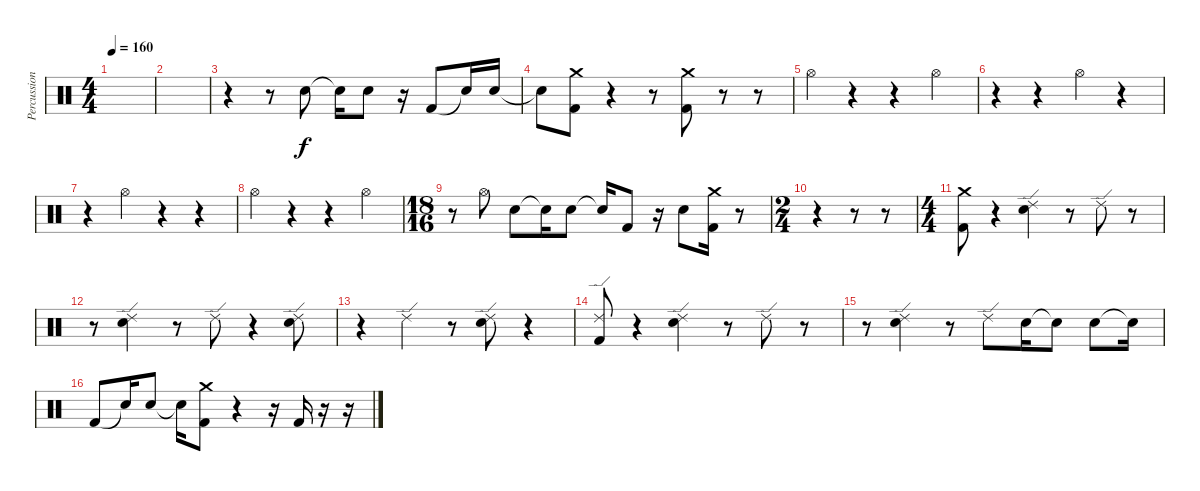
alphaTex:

\track ("Percussion" "Percussion") {instrument percussion}
\staff {score}
\articulation defaults
\ts (4 4)
\tempo 160
\clef neutral
\ks c
|
|
r.4 r.8 "Electric Snare (hit)".8 "Snare (hit)"{t}.16 "Electric Snare (hit)".8 r.16 "Kick (hit) 2".8 "Snare (hit)"{t}.16 "Electric Snare (hit)".16 |
"Electric Snare (hit)"{t}.8 ("Crash medium (hit)" "Kick (hit) 2").8 r.4 r.8 ("Crash medium (hit)" "Kick (hit) 2").8 r.8 r.8 |
"Hi-Hat (open)".4 r.4 r.4 "Hi-Hat (open)".4 |
r.4 r.4 "Hi-Hat (open)".4 r.4 |
r.4 "Hi-Hat (open)".4 r.4 r.4 |
"Hi-Hat (open)".4 r.4 r.4 "Hi-Hat (open)".4 |
\ts (18 16)
r.8 "Hi-Hat (open)".8 "Electric Snare (hit)".8 "Electric Snare (hit)"{t}.16 "Electric Snare (hit)".8 "Snare (hit)"{t}.16 "Kick (hit) 2".8 r.16 "Electric Snare (hit)".8 ("Kick (hit) 2" "Crash medium (hit)").16 r.8 |
\ts (2 4)
r.4 r.8 r.8 |
\ts (4 4)
("Crash medium (hit)" "Kick (hit) 2").8 r.4 ("Ride (edge) 2" "Electric Snare (hit)").4 r.8 "Ride (edge) 2".8 r.8 |
r.8 ("Ride (edge) 2" "Electric Snare (hit)").4 r.8 "Ride (edge) 2".8 r.4 ("Ride (edge) 2" "Electric Snare (hit)").8 |
r.4 "Ride (edge) 2".4 r.8 ("Ride (edge) 2" "Electric Snare (hit)").8 r.4 |
("Ride (edge) 2" "Kick (hit) 2").8 r.4 ("Ride (edge) 2" "Electric Snare (hit)").4 r.8 "Ride (edge) 2".8 r.8 |
r.8 ("Ride (edge) 2" "Electric Snare (hit)").4 r.8 "Ride (edge) 2".8 "Electric Snare (hit)".16 "Electric Snare (hit)"{t}.8 "Electric Snare (hit)".8 "Snare (hit)"{t}.16 |
"Kick (hit) 2".8 "Snare (hit)"{t}.16 "Electric Snare (hit)".8 "Snare (hit)"{t}.16 ("Crash medium (hit)" "Kick (hit) 2").8 r.4 r.16 "Kick (hit) 2".16 r.16 r.16
